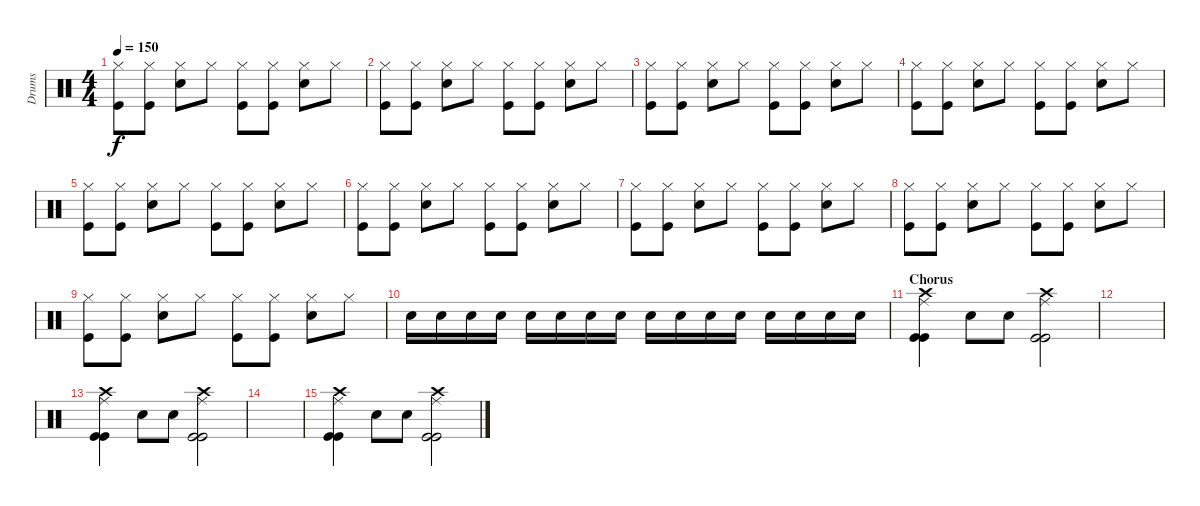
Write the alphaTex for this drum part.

\track ("Drums" "Drums") {instrument percussion}
\staff {score}
\articulation defaults
\ts (4 4)
\tempo 150
\clef neutral
\ks c
("Hi-Hat (closed)" "Kick (hit)").8{dy f} ("Hi-Hat (closed)" "Kick (hit)").8 ("Hi-Hat (closed)" "Snare (hit) 2").8 "Hi-Hat (closed)".8 ("Hi-Hat (closed)" "Kick (hit)").8 ("Hi-Hat (closed)" "Kick (hit)").8 ("Hi-Hat (closed)" "Snare (hit) 2").8 "Hi-Hat (closed)".8 |
("Hi-Hat (closed)" "Kick (hit)").8 ("Hi-Hat (closed)" "Kick (hit)").8 ("Hi-Hat (closed)" "Snare (hit) 2").8 "Hi-Hat (closed)".8 ("Hi-Hat (closed)" "Kick (hit)").8 ("Hi-Hat (closed)" "Kick (hit)").8 ("Hi-Hat (closed)" "Snare (hit) 2").8 "Hi-Hat (closed)".8 |
("Hi-Hat (closed)" "Kick (hit)").8 ("Hi-Hat (closed)" "Kick (hit)").8 ("Hi-Hat (closed)" "Snare (hit) 2").8 "Hi-Hat (closed)".8 ("Hi-Hat (closed)" "Kick (hit)").8 ("Hi-Hat (closed)" "Kick (hit)").8 ("Hi-Hat (closed)" "Snare (hit) 2").8 "Hi-Hat (closed)".8 |
("Hi-Hat (closed)" "Kick (hit)").8 ("Hi-Hat (closed)" "Kick (hit)").8 ("Hi-Hat (closed)" "Snare (hit) 2").8 "Hi-Hat (closed)".8 ("Hi-Hat (closed)" "Kick (hit)").8 ("Hi-Hat (closed)" "Kick (hit)").8 ("Hi-Hat (closed)" "Snare (hit) 2").8 "Hi-Hat (closed)".8 |
("Hi-Hat (closed)" "Kick (hit)").8 ("Hi-Hat (closed)" "Kick (hit)").8 ("Hi-Hat (closed)" "Snare (hit) 2").8 "Hi-Hat (closed)".8 ("Hi-Hat (closed)" "Kick (hit)").8 ("Hi-Hat (closed)" "Kick (hit)").8 ("Hi-Hat (closed)" "Snare (hit) 2").8 "Hi-Hat (closed)".8 |
("Hi-Hat (closed)" "Kick (hit)").8 ("Hi-Hat (closed)" "Kick (hit)").8 ("Hi-Hat (closed)" "Snare (hit) 2").8 "Hi-Hat (closed)".8 ("Hi-Hat (closed)" "Kick (hit)").8 ("Hi-Hat (closed)" "Kick (hit)").8 ("Hi-Hat (closed)" "Snare (hit) 2").8 "Hi-Hat (closed)".8 |
("Hi-Hat (closed)" "Kick (hit)").8 ("Hi-Hat (closed)" "Kick (hit)").8 ("Hi-Hat (closed)" "Snare (hit) 2").8 "Hi-Hat (closed)".8 ("Hi-Hat (closed)" "Kick (hit)").8 ("Hi-Hat (closed)" "Kick (hit)").8 ("Hi-Hat (closed)" "Snare (hit) 2").8 "Hi-Hat (closed)".8 |
("Hi-Hat (closed)" "Kick (hit)").8 ("Hi-Hat (closed)" "Kick (hit)").8 ("Hi-Hat (closed)" "Snare (hit) 2").8 "Hi-Hat (closed)".8 ("Hi-Hat (closed)" "Kick (hit)").8 ("Hi-Hat (closed)" "Kick (hit)").8 ("Hi-Hat (closed)" "Snare (hit) 2").8 "Hi-Hat (closed)".8 |
("Hi-Hat (closed)" "Kick (hit)").8 ("Hi-Hat (closed)" "Kick (hit)").8 ("Hi-Hat (closed)" "Snare (hit) 2").8 "Hi-Hat (closed)".8 ("Hi-Hat (closed)" "Kick (hit)").8 ("Hi-Hat (closed)" "Kick (hit)").8 ("Hi-Hat (closed)" "Snare (hit) 2").8 "Hi-Hat (closed)".8 |
"Snare (hit) 2".16 "Snare (hit) 2".16 "Snare (hit) 2".16 "Snare (hit) 2".16 "Snare (hit) 2".16 "Snare (hit) 2".16 "Snare (hit) 2".16 "Snare (hit) 2".16 "Snare (hit) 2".16 "Snare (hit) 2".16 "Snare (hit) 2".16 "Snare (hit) 2".16 "Snare (hit) 2".16 "Snare (hit) 2".16 "Snare (hit) 2".16 "Snare (hit) 2".16 |
\section ("" "Chorus")
("Crash high (hit)" "Ride (middle)" "Kick (hit)" "Kick (hit)").4 "Electric Snare (hit)".8 "Electric Snare (hit)".8 ("Crash high (hit)" "Ride (middle)" "Kick (hit)" "Kick (hit)").2 |
|
("Crash high (hit)" "Ride (middle)" "Kick (hit)" "Kick (hit)").4 "Electric Snare (hit)".8 "Electric Snare (hit)".8 ("Crash high (hit)" "Ride (middle)" "Kick (hit)" "Kick (hit)").2 |
|
("Crash high (hit)" "Ride (middle)" "Kick (hit)" "Kick (hit)").4 "Electric Snare (hit)".8 "Electric Snare (hit)".8 ("Crash high (hit)" "Ride (middle)" "Kick (hit)" "Kick (hit)").2
